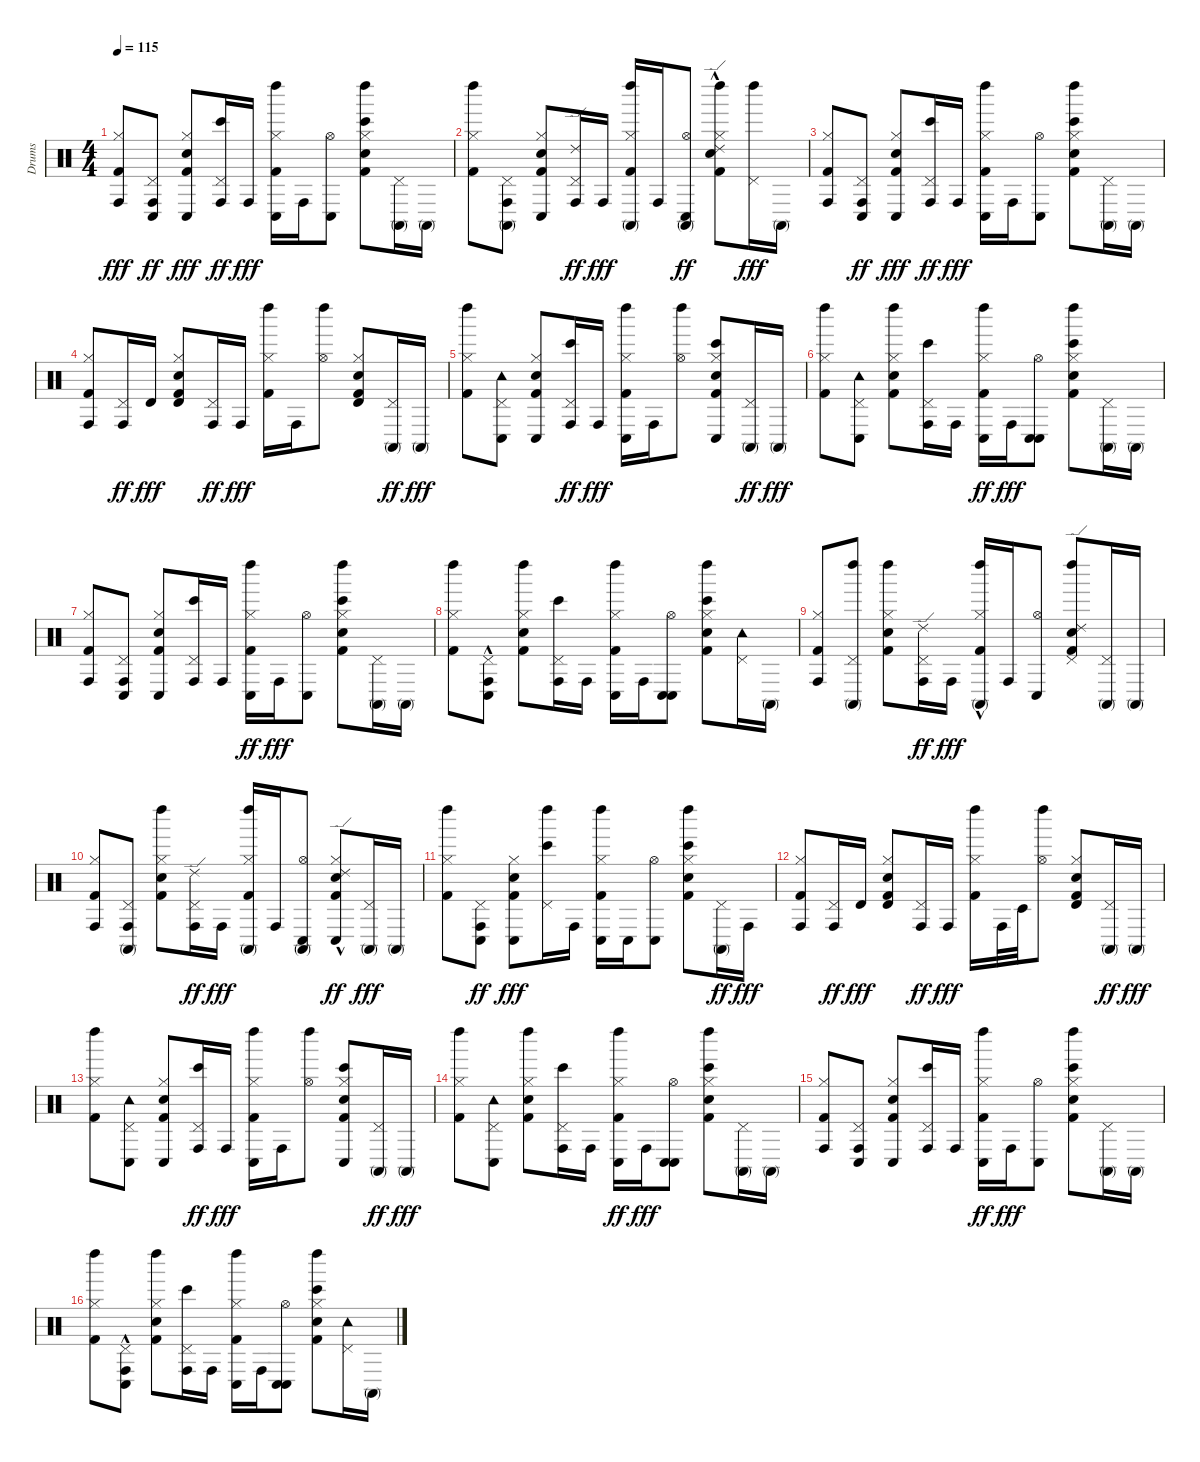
\track ("Drums" "Drums") {instrument percussion}
\staff {score}
\articulation defaults
\ts (4 4)
\tempo 115
\clef neutral
\ks c
("Conga high (hit)" "Hi-Hat (closed)" "Kick (hit) 2").8{dy fff} ("Conga high (hit)" "Pedal Hi-Hat (hit)" "Conga low (hit)").8{dy ff} ("Conga low (hit)" "Hi-Hat (closed)" "Snare (hit) 2" "Kick (hit) 2").8{dy fff} ("Bongo High (hit)" "Conga high (hit)" "Pedal Hi-Hat (hit)").16{dy ff} "Conga high (hit)".16{dy fff} ("Conga low (hit)" "Left Maraca (hit)" "Hi-Hat (closed)" "Kick (hit) 2").16 "Conga high (hit)".16 ("Conga low (hit)" "Hi-Hat (open)").8 ("Bongo High (hit)" "Left Maraca (hit)" "Hi-Hat (closed)" "Snare (hit) 2" "Kick (hit) 2").8 ("Conga high (mute)" "Pedal Hi-Hat (hit)").16 "Conga high (mute)".16 |
("Left Maraca (hit)" "Hi-Hat (closed)" "Kick (hit) 2").8 ("Conga high (mute)" "Conga high (hit)" "Pedal Hi-Hat (hit)").8 ("Conga low (hit)" "Hi-Hat (closed)" "Snare (hit) 2" "Kick (hit) 2").8 ("Conga high (hit)" "Pedal Hi-Hat (hit)" "Ride (edge) 2").16{dy ff} "Conga high (hit)".16{dy fff} ("Conga high (mute)" "Left Maraca (hit)" "Hi-Hat (closed)" "Kick (hit) 2").16 "Conga high (hit)".16 ("Conga low (hit)" "Hi-Hat (open)" "Conga high (mute)").8{dy ff} ("Left Maraca (hit)" "Hi-Hat (closed)" "Snare (hit) 2" "Kick (hit) 2" "Ride (edge) 2"{hac}).8 ("Left Maraca (hit)" "Pedal Hi-Hat (hit)").16{dy fff} "Conga high (mute)".16 |
("Conga high (hit)" "Hi-Hat (closed)" "Kick (hit) 2").8 ("Conga high (hit)" "Pedal Hi-Hat (hit)" "Conga low (hit)").8{dy ff} ("Conga low (hit)" "Hi-Hat (closed)" "Snare (hit) 2" "Kick (hit) 2").8{dy fff} ("Bongo High (hit)" "Conga high (hit)" "Pedal Hi-Hat (hit)").16{dy ff} "Conga high (hit)".16{dy fff} ("Conga low (hit)" "Left Maraca (hit)" "Hi-Hat (closed)" "Kick (hit) 2").16 "Conga high (hit)".16 ("Conga low (hit)" "Hi-Hat (open)").8 ("Bongo High (hit)" "Left Maraca (hit)" "Hi-Hat (closed)" "Snare (hit) 2" "Kick (hit) 2").8 ("Conga high (mute)" "Pedal Hi-Hat (hit)").16 "Conga high (mute)".16 |
("Conga high (hit)" "Hi-Hat (closed)" "Kick (hit) 2").8 ("Conga high (hit)" "Pedal Hi-Hat (hit)").16{dy ff} "Timbale high (hit)".16{dy fff} ("Timbale high (hit)" "Hi-Hat (closed)" "Snare (hit) 2" "Kick (hit) 2").8 ("Conga high (hit)" "Pedal Hi-Hat (hit)").16{dy ff} "Conga high (hit)".16{dy fff} ("Left Maraca (hit)" "Hi-Hat (closed)" "Kick (hit) 2").16 "Conga high (hit)".16 ("Left Maraca (hit)" "Hi-Hat (open)").8 ("Timbale high (hit)" "Hi-Hat (closed)" "Snare (hit) 2" "Kick (hit) 2").8 ("Conga high (mute)" "Pedal Hi-Hat (hit)").16{dy ff} "Conga high (mute)".16{dy fff} |
("Left Maraca (hit)" "Hi-Hat (closed)" "Kick (hit) 2").8 ("Conga low (hit)" "Pedal Hi-Hat (hit)" "Tambourine (hit)").8 ("Conga low (hit)" "Hi-Hat (closed)" "Snare (hit) 2" "Kick (hit) 2").8 ("Bongo High (hit)" "Conga high (hit)" "Pedal Hi-Hat (hit)").16{dy ff} "Conga high (hit)".16{dy fff} ("Conga low (hit)" "Left Maraca (hit)" "Hi-Hat (closed)" "Kick (hit) 2").16 "Conga high (hit)".16 ("Left Maraca (hit)" "Hi-Hat (open)").8 ("Bongo High (hit)" "Conga low (hit)" "Hi-Hat (closed)" "Snare (hit) 2" "Kick (hit) 2").8 ("Conga high (mute)" "Pedal Hi-Hat (hit)").16{dy ff} "Conga high (mute)".16{dy fff} |
("Left Maraca (hit)" "Hi-Hat (closed)" "Kick (hit) 2").8 ("Conga low (hit)" "Pedal Hi-Hat (hit)" "Tambourine (hit)").8 ("Left Maraca (hit)" "Hi-Hat (closed)" "Snare (hit) 2" "Kick (hit) 2").8 ("Bongo High (hit)" "Conga high (hit)" "Pedal Hi-Hat (hit)").16 "Conga high (hit)".16 ("Left Maraca (hit)" "Hi-Hat (closed)" "Kick (hit) 2" "Conga low (hit)").16{dy ff} "Conga high (hit)".16{dy fff} ("Conga low (hit)" "Conga low (hit)" "Hi-Hat (open)").8 ("Bongo High (hit)" "Left Maraca (hit)" "Hi-Hat (closed)" "Snare (hit) 2" "Kick (hit) 2").8 ("Conga high (mute)" "Pedal Hi-Hat (hit)").16 "Conga high (mute)".16 |
("Conga high (hit)" "Hi-Hat (closed)" "Kick (hit) 2").8 ("Conga high (hit)" "Pedal Hi-Hat (hit)" "Conga low (hit)").8 ("Conga low (hit)" "Hi-Hat (closed)" "Snare (hit) 2" "Kick (hit) 2").8 ("Bongo High (hit)" "Conga high (hit)" "Pedal Hi-Hat (hit)").16 "Conga high (hit)".16 ("Left Maraca (hit)" "Hi-Hat (closed)" "Kick (hit) 2" "Conga low (hit)").16{dy ff} "Conga high (hit)".16{dy fff} ("Conga low (hit)" "Hi-Hat (open)").8 ("Bongo High (hit)" "Left Maraca (hit)" "Hi-Hat (closed)" "Snare (hit) 2" "Kick (hit) 2").8 ("Conga high (mute)" "Pedal Hi-Hat (hit)").16 "Conga high (mute)".16 |
("Left Maraca (hit)" "Hi-Hat (closed)" "Kick (hit) 2").8 ("Conga high (hit)" "Pedal Hi-Hat (hit)" "Conga low (hit)"{hac}).8 ("Left Maraca (hit)" "Hi-Hat (closed)" "Snare (hit) 2" "Kick (hit) 2").8 ("Bongo High (hit)" "Conga high (hit)" "Pedal Hi-Hat (hit)").16 "Conga high (hit)".16 ("Conga low (hit)" "Left Maraca (hit)" "Hi-Hat (closed)" "Kick (hit) 2").16 "Conga high (hit)".16 ("Conga low (hit)" "Conga low (hit)" "Hi-Hat (open)").8 ("Bongo High (hit)" "Left Maraca (hit)" "Hi-Hat (closed)" "Snare (hit) 2" "Kick (hit) 2").8 ("Pedal Hi-Hat (hit)" "Tambourine (hit)").16 "Conga high (mute)".16 |
("Conga high (hit)" "Hi-Hat (closed)" "Kick (hit) 2").8 ("Conga high (mute)" "Left Maraca (hit)" "Pedal Hi-Hat (hit)").8 ("Left Maraca (hit)" "Hi-Hat (closed)" "Snare (hit) 2" "Kick (hit) 2").8 ("Ride (edge) 2" "Conga high (hit)" "Pedal Hi-Hat (hit)").16{dy ff} "Conga high (hit)".16{dy fff} ("Left Maraca (hit)" "Hi-Hat (closed)" "Kick (hit) 2" "Conga high (mute)"{hac}).16 "Conga high (hit)".16 ("Conga low (hit)" "Hi-Hat (open)").8 ("Ride (edge) 2" "Left Maraca (hit)" "Pedal Hi-Hat (hit)" "Snare (hit) 2" "Kick (hit) 2").8 ("Conga high (mute)" "Pedal Hi-Hat (hit)").16 "Conga high (mute)".16 |
("Conga high (hit)" "Hi-Hat (closed)" "Kick (hit) 2").8 ("Conga high (mute)" "Conga high (hit)" "Pedal Hi-Hat (hit)").8 ("Left Maraca (hit)" "Hi-Hat (closed)" "Snare (hit) 2" "Kick (hit) 2").8 ("Conga high (hit)" "Pedal Hi-Hat (hit)" "Ride (edge) 2").16{dy ff} "Conga high (hit)".16{dy fff} ("Conga high (mute)" "Left Maraca (hit)" "Hi-Hat (closed)" "Kick (hit) 2").16 "Conga high (hit)".16 ("Conga high (mute)" "Conga low (hit)" "Hi-Hat (open)").8 ("Conga low (hit)" "Hi-Hat (closed)" "Snare (hit) 2" "Kick (hit) 2" "Ride (edge) 2"{hac}).8{dy ff} ("Conga high (mute)" "Pedal Hi-Hat (hit)").16{dy fff} "Conga high (mute)".16 |
("Left Maraca (hit)" "Hi-Hat (closed)" "Kick (hit) 2").8 ("Conga low (hit)" "Conga high (hit)" "Pedal Hi-Hat (hit)").8{dy ff} ("Conga low (hit)" "Hi-Hat (closed)" "Snare (hit) 2" "Kick (hit) 2").8{dy fff} ("Bongo High (hit)" "Left Maraca (hit)" "Pedal Hi-Hat (hit)").16 "Conga high (hit)".16 ("Conga low (hit)" "Left Maraca (hit)" "Hi-Hat (closed)" "Kick (hit) 2").16 "Conga low (hit)".16 ("Conga low (hit)" "Hi-Hat (open)").8 ("Bongo High (hit)" "Left Maraca (hit)" "Hi-Hat (closed)" "Snare (hit) 2" "Kick (hit) 2").8 ("Conga high (mute)" "Pedal Hi-Hat (hit)").16{dy ff} "Conga high (hit)".16{dy fff} |
("Conga high (hit)" "Hi-Hat (closed)" "Kick (hit) 2").8 ("Conga high (hit)" "Pedal Hi-Hat (hit)").16{dy ff} "Timbale high (hit)".16{dy fff} ("Timbale high (hit)" "Hi-Hat (closed)" "Snare (hit) 2" "Kick (hit) 2").8 ("Conga high (hit)" "Pedal Hi-Hat (hit)").16{dy ff} "Conga high (hit)".16{dy fff} ("Left Maraca (hit)" "Hi-Hat (closed)" "Kick (hit) 2").16 "Conga high (hit)".32 "Timbale low (hit)".32 ("Left Maraca (hit)" "Hi-Hat (open)").8 ("Timbale high (hit)" "Hi-Hat (closed)" "Snare (hit) 2" "Kick (hit) 2").8 ("Conga high (mute)" "Pedal Hi-Hat (hit)").16{dy ff} "Conga high (mute)".16{dy fff} |
("Left Maraca (hit)" "Hi-Hat (closed)" "Kick (hit) 2").8 ("Conga low (hit)" "Pedal Hi-Hat (hit)" "Tambourine (hit)").8 ("Conga low (hit)" "Hi-Hat (closed)" "Snare (hit) 2" "Kick (hit) 2").8 ("Bongo High (hit)" "Conga high (hit)" "Pedal Hi-Hat (hit)").16{dy ff} "Conga high (hit)".16{dy fff} ("Conga low (hit)" "Left Maraca (hit)" "Hi-Hat (closed)" "Kick (hit) 2").16 "Conga high (hit)".16 ("Left Maraca (hit)" "Hi-Hat (open)").8 ("Bongo High (hit)" "Conga low (hit)" "Hi-Hat (closed)" "Snare (hit) 2" "Kick (hit) 2").8 ("Conga high (mute)" "Pedal Hi-Hat (hit)").16{dy ff} "Conga high (mute)".16{dy fff} |
("Left Maraca (hit)" "Hi-Hat (closed)" "Kick (hit) 2").8 ("Conga low (hit)" "Pedal Hi-Hat (hit)" "Tambourine (hit)").8 ("Left Maraca (hit)" "Hi-Hat (closed)" "Snare (hit) 2" "Kick (hit) 2").8 ("Bongo High (hit)" "Conga high (hit)" "Pedal Hi-Hat (hit)").16 "Conga high (hit)".16 ("Left Maraca (hit)" "Hi-Hat (closed)" "Kick (hit) 2" "Conga low (hit)").16{dy ff} "Conga high (hit)".16{dy fff} ("Conga low (hit)" "Conga low (hit)" "Hi-Hat (open)").8 ("Bongo High (hit)" "Left Maraca (hit)" "Hi-Hat (closed)" "Snare (hit) 2" "Kick (hit) 2").8 ("Conga high (mute)" "Pedal Hi-Hat (hit)").16 "Conga high (mute)".16 |
("Conga high (hit)" "Hi-Hat (closed)" "Kick (hit) 2").8 ("Conga high (hit)" "Pedal Hi-Hat (hit)" "Conga low (hit)").8 ("Conga low (hit)" "Hi-Hat (closed)" "Snare (hit) 2" "Kick (hit) 2").8 ("Bongo High (hit)" "Conga high (hit)" "Pedal Hi-Hat (hit)").16 "Conga high (hit)".16 ("Left Maraca (hit)" "Hi-Hat (closed)" "Kick (hit) 2" "Conga low (hit)").16{dy ff} "Conga high (hit)".16{dy fff} ("Conga low (hit)" "Hi-Hat (open)").8 ("Bongo High (hit)" "Left Maraca (hit)" "Hi-Hat (closed)" "Snare (hit) 2" "Kick (hit) 2").8 ("Conga high (mute)" "Pedal Hi-Hat (hit)").16 "Conga high (mute)".16 |
("Left Maraca (hit)" "Hi-Hat (closed)" "Kick (hit) 2").8 ("Conga high (hit)" "Pedal Hi-Hat (hit)" "Conga low (hit)"{hac}).8 ("Left Maraca (hit)" "Hi-Hat (closed)" "Snare (hit) 2" "Kick (hit) 2").8 ("Bongo High (hit)" "Conga high (hit)" "Pedal Hi-Hat (hit)").16 "Conga high (hit)".16 ("Conga low (hit)" "Left Maraca (hit)" "Hi-Hat (closed)" "Kick (hit) 2").16 "Conga high (hit)".16 ("Conga low (hit)" "Conga low (hit)" "Hi-Hat (open)").8 ("Bongo High (hit)" "Left Maraca (hit)" "Hi-Hat (closed)" "Snare (hit) 2" "Kick (hit) 2").8 ("Pedal Hi-Hat (hit)" "Tambourine (hit)").16 "Conga high (mute)".16
